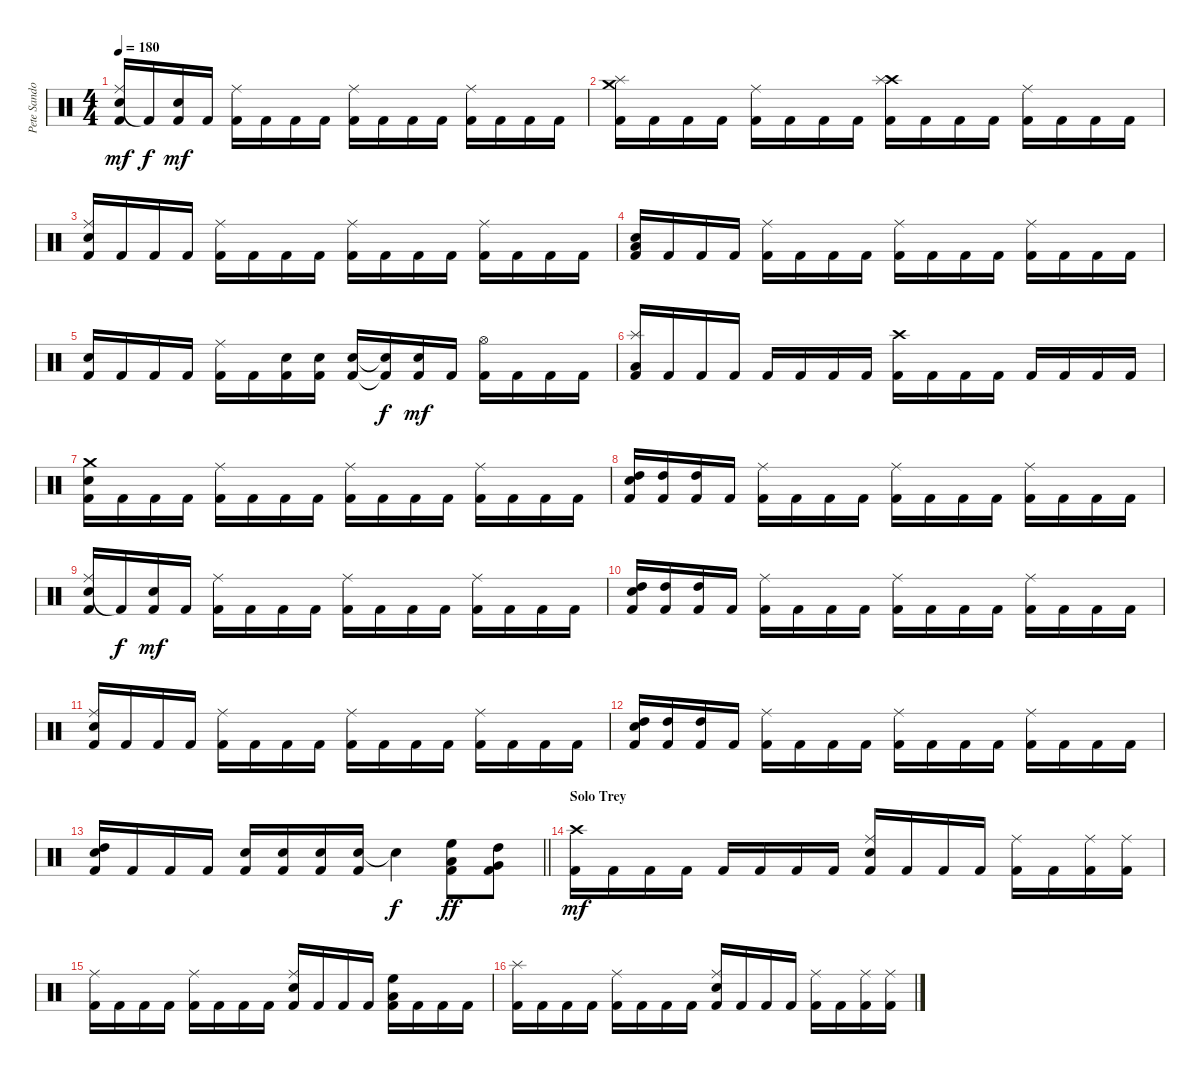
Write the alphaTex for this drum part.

\track ("Pete Sandoval" "Pete Sando") {instrument percussion}
\staff {score}
\articulation defaults
\ts (4 4)
\tempo 180
\clef neutral
\ks c
("Snare (hit) 2" "Ride (middle)" "Kick (hit) 2").16{dy mf} "Kick (hit) 2"{t}.16{dy f} ("Snare (hit) 2" "Kick (hit) 2").16{dy mf} "Kick (hit) 2".16 ("Ride (middle)" "Kick (hit) 2").16 "Kick (hit) 2".16 "Kick (hit) 2".16 "Kick (hit) 2".16 ("Ride (middle)" "Kick (hit) 2").16 "Kick (hit) 2".16 "Kick (hit) 2".16 "Kick (hit) 2".16 ("Ride (middle)" "Kick (hit) 2").16 "Kick (hit) 2".16 "Kick (hit) 2".16 "Kick (hit) 2".16 |
("Crash medium (hit)" "Splash (hit)" "Kick (hit) 2").16 "Kick (hit) 2".16 "Kick (hit) 2".16 "Kick (hit) 2".16 ("Ride (middle)" "Kick (hit) 2").16 "Kick (hit) 2".16 "Kick (hit) 2".16 "Kick (hit) 2".16 ("Crash high (hit)" "Splash (hit)" "Kick (hit) 2").16 "Kick (hit) 2".16 "Kick (hit) 2".16 "Kick (hit) 2".16 ("Ride (middle)" "Kick (hit) 2").16 "Kick (hit) 2".16 "Kick (hit) 2".16 "Kick (hit) 2".16 |
("Snare (hit) 2" "Ride (middle)" "Kick (hit) 2").16 "Kick (hit) 2".16 "Kick (hit) 2".16 "Kick (hit) 2".16 ("Ride (middle)" "Kick (hit) 2").16 "Kick (hit) 2".16 "Kick (hit) 2".16 "Kick (hit) 2".16 ("Ride (middle)" "Kick (hit) 2").16 "Kick (hit) 2".16 "Kick (hit) 2".16 "Kick (hit) 2".16 ("Ride (middle)" "Kick (hit) 2").16 "Kick (hit) 2".16 "Kick (hit) 2".16 "Kick (hit) 2".16 |
("Snare (hit) 2" "Low Tom (hit)" "Kick (hit) 2").16 "Kick (hit) 2".16 "Kick (hit) 2".16 "Kick (hit) 2".16 ("Ride (middle)" "Kick (hit) 2").16 "Kick (hit) 2".16 "Kick (hit) 2".16 "Kick (hit) 2".16 ("Ride (middle)" "Kick (hit) 2").16 "Kick (hit) 2".16 "Kick (hit) 2".16 "Kick (hit) 2".16 ("Ride (middle)" "Kick (hit) 2").16 "Kick (hit) 2".16 "Kick (hit) 2".16 "Kick (hit) 2".16 |
("Snare (hit) 2" "Kick (hit) 2").16 "Kick (hit) 2".16 "Kick (hit) 2".16 "Kick (hit) 2".16 ("Ride (middle)" "Kick (hit) 2").16 "Kick (hit) 2".16 ("Snare (hit) 2" "Kick (hit) 2").16 ("Snare (hit) 2" "Kick (hit) 2").16 ("Snare (hit) 2" "Kick (hit) 2").16 ("Snare (hit) 2"{t} "Kick (hit) 2"{t}).16{dy f} ("Snare (hit) 2" "Kick (hit) 2").16{dy mf} "Kick (hit) 2".16 ("Hi-Hat (open)" "Kick (hit) 2").16 "Kick (hit) 2".16 "Kick (hit) 2".16 "Kick (hit) 2".16 |
("Splash (hit)" "Low Floor Tom (hit)" "Kick (hit) 2").16 "Kick (hit) 2".16 "Kick (hit) 2".16 "Kick (hit) 2".16 "Kick (hit) 2".16 "Kick (hit) 2".16 "Kick (hit) 2".16 "Kick (hit) 2".16 ("Crash high (hit)" "Kick (hit) 2").16 "Kick (hit) 2".16 "Kick (hit) 2".16 "Kick (hit) 2".16 "Kick (hit) 2".16 "Kick (hit) 2".16 "Kick (hit) 2".16 "Kick (hit) 2".16 |
("Snare (hit) 2" "Crash medium (hit)" "Kick (hit) 2").16 "Kick (hit) 2".16 "Kick (hit) 2".16 "Kick (hit) 2".16 ("Ride (middle)" "Kick (hit) 2").16 "Kick (hit) 2".16 "Kick (hit) 2".16 "Kick (hit) 2".16 ("Ride (middle)" "Kick (hit) 2").16 "Kick (hit) 2".16 "Kick (hit) 2".16 "Kick (hit) 2".16 ("Ride (middle)" "Kick (hit) 2").16 "Kick (hit) 2".16 "Kick (hit) 2".16 "Kick (hit) 2".16 |
("Snare (hit) 2" "High Tom (hit)" "Kick (hit) 2").16 ("High Tom (hit)" "Kick (hit) 2").16 ("High Tom (hit)" "Kick (hit) 2").16 "Kick (hit) 2".16 ("Ride (middle)" "Kick (hit) 2").16 "Kick (hit) 2".16 "Kick (hit) 2".16 "Kick (hit) 2".16 ("Ride (middle)" "Kick (hit) 2").16 "Kick (hit) 2".16 "Kick (hit) 2".16 "Kick (hit) 2".16 ("Ride (middle)" "Kick (hit) 2").16 "Kick (hit) 2".16 "Kick (hit) 2".16 "Kick (hit) 2".16 |
("Snare (hit) 2" "Ride (middle)" "Kick (hit) 2").16 "Kick (hit) 2"{t}.16{dy f} ("Snare (hit) 2" "Kick (hit) 2").16{dy mf} "Kick (hit) 2".16 ("Ride (middle)" "Kick (hit) 2").16 "Kick (hit) 2".16 "Kick (hit) 2".16 "Kick (hit) 2".16 ("Ride (middle)" "Kick (hit) 2").16 "Kick (hit) 2".16 "Kick (hit) 2".16 "Kick (hit) 2".16 ("Ride (middle)" "Kick (hit) 2").16 "Kick (hit) 2".16 "Kick (hit) 2".16 "Kick (hit) 2".16 |
("Snare (hit) 2" "High Tom (hit)" "Kick (hit) 2").16 ("High Tom (hit)" "Kick (hit) 2").16 ("High Tom (hit)" "Kick (hit) 2").16 "Kick (hit) 2".16 ("Ride (middle)" "Kick (hit) 2").16 "Kick (hit) 2".16 "Kick (hit) 2".16 "Kick (hit) 2".16 ("Ride (middle)" "Kick (hit) 2").16 "Kick (hit) 2".16 "Kick (hit) 2".16 "Kick (hit) 2".16 ("Ride (middle)" "Kick (hit) 2").16 "Kick (hit) 2".16 "Kick (hit) 2".16 "Kick (hit) 2".16 |
("Snare (hit) 2" "Ride (middle)" "Kick (hit) 2").16 "Kick (hit) 2".16 "Kick (hit) 2".16 "Kick (hit) 2".16 ("Ride (middle)" "Kick (hit) 2").16 "Kick (hit) 2".16 "Kick (hit) 2".16 "Kick (hit) 2".16 ("Ride (middle)" "Kick (hit) 2").16 "Kick (hit) 2".16 "Kick (hit) 2".16 "Kick (hit) 2".16 ("Ride (middle)" "Kick (hit) 2").16 "Kick (hit) 2".16 "Kick (hit) 2".16 "Kick (hit) 2".16 |
("Snare (hit) 2" "High Tom (hit)" "Kick (hit) 2").16 ("High Tom (hit)" "Kick (hit) 2").16 ("High Tom (hit)" "Kick (hit) 2").16 "Kick (hit) 2".16 ("Ride (middle)" "Kick (hit) 2").16 "Kick (hit) 2".16 "Kick (hit) 2".16 "Kick (hit) 2".16 ("Ride (middle)" "Kick (hit) 2").16 "Kick (hit) 2".16 "Kick (hit) 2".16 "Kick (hit) 2".16 ("Ride (middle)" "Kick (hit) 2").16 "Kick (hit) 2".16 "Kick (hit) 2".16 "Kick (hit) 2".16 |
\barLineRight lightlight
("Snare (hit) 2" "High Tom (hit)" "Kick (hit) 2").16 "Kick (hit) 2".16 "Kick (hit) 2".16 "Kick (hit) 2".16 ("Snare (hit) 2" "Kick (hit) 2").16 ("Snare (hit) 2" "Kick (hit) 2").16 ("Snare (hit) 2" "Kick (hit) 2").16 ("Snare (hit) 2" "Kick (hit) 2").16 "Snare (hit)"{t}.4{dy f} ("High Floor Tom (hit)" "Low Tom (hit)" "Kick (hit) 2").8{dy ff} ("High Tom (hit)" "Very Low Tom (hit)" "Kick (hit) 2").8 |
\section ("" "Solo Trey")
("Crash high (hit)" "Kick (hit) 2").16{dy mf} "Kick (hit) 2".16 "Kick (hit) 2".16 "Kick (hit) 2".16 "Kick (hit) 2".16 "Kick (hit) 2".16 "Kick (hit) 2".16 "Kick (hit) 2".16 ("Snare (hit) 2" "Ride (middle)" "Kick (hit) 2").16 "Kick (hit) 2".16 "Kick (hit) 2".16 "Kick (hit) 2".16 ("Ride (middle)" "Kick (hit) 2").16 "Kick (hit) 2".16 ("Ride (middle)" "Kick (hit) 2").16 ("Ride (middle)" "Kick (hit) 2").16 |
("Ride (middle)" "Kick (hit) 2").16 "Kick (hit) 2".16 "Kick (hit) 2".16 "Kick (hit) 2".16 ("Ride (middle)" "Kick (hit) 2").16 "Kick (hit) 2".16 "Kick (hit) 2".16 "Kick (hit) 2".16 ("Snare (hit) 2" "Ride (middle)" "Kick (hit) 2").16 "Kick (hit) 2".16 "Kick (hit) 2".16 "Kick (hit) 2".16 ("High Floor Tom (hit)" "Low Tom (hit)" "Kick (hit) 2").16 "Kick (hit) 2".16 "Kick (hit) 2".16 "Kick (hit) 2".16 |
("Splash (hit)" "Kick (hit) 2").16 "Kick (hit) 2".16 "Kick (hit) 2".16 "Kick (hit) 2".16 ("Ride (middle)" "Kick (hit) 2").16 "Kick (hit) 2".16 "Kick (hit) 2".16 "Kick (hit) 2".16 ("Snare (hit) 2" "Ride (middle)" "Kick (hit) 2").16 "Kick (hit) 2".16 "Kick (hit) 2".16 "Kick (hit) 2".16 ("Ride (middle)" "Kick (hit) 2").16 "Kick (hit) 2".16 ("Ride (middle)" "Kick (hit) 2").16 ("Ride (middle)" "Kick (hit) 2").16
